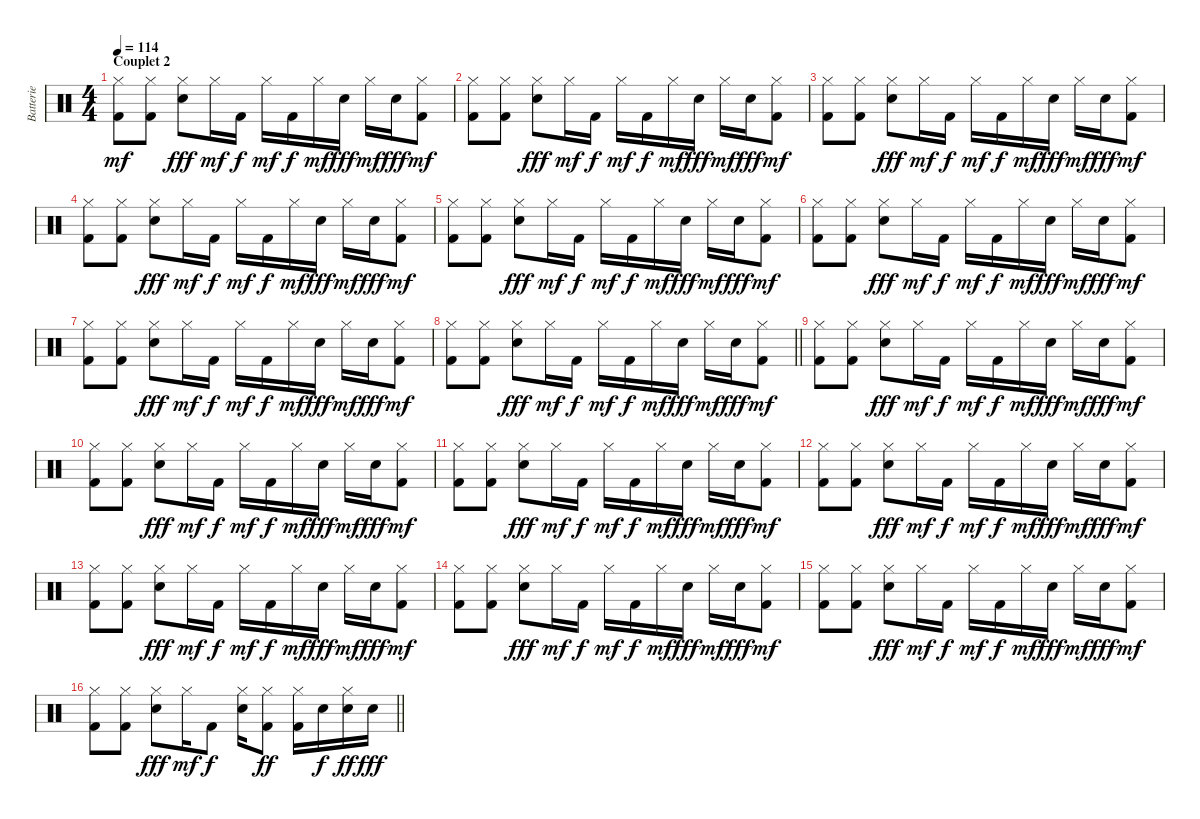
\track ("Batterie" "Batterie") {instrument percussion}
\staff {score}
\articulation defaults
\ts (4 4)
\section ("" "Couplet 2")
\tempo 114
\clef neutral
\ks c
("Hi-Hat (closed)" "Kick (hit) 2").8{dy mf} ("Hi-Hat (closed)" "Kick (hit) 2").8 ("Hi-Hat (closed)" "Snare (hit) 2").8{dy fff} "Hi-Hat (closed)".16{dy mf} "Kick (hit) 2".16{dy f} "Hi-Hat (closed)".16{dy mf} "Kick (hit) 2".16{dy f} "Hi-Hat (closed)".16{dy mf} "Snare (hit) 2".16{dy fff} "Hi-Hat (closed)".16{dy mf} "Snare (hit) 2".16{dy fff} ("Hi-Hat (closed)" "Kick (hit) 2").8{dy mf} |
("Hi-Hat (closed)" "Kick (hit) 2").8 ("Hi-Hat (closed)" "Kick (hit) 2").8 ("Hi-Hat (closed)" "Snare (hit) 2").8{dy fff} "Hi-Hat (closed)".16{dy mf} "Kick (hit) 2".16{dy f} "Hi-Hat (closed)".16{dy mf} "Kick (hit) 2".16{dy f} "Hi-Hat (closed)".16{dy mf} "Snare (hit) 2".16{dy fff} "Hi-Hat (closed)".16{dy mf} "Snare (hit) 2".16{dy fff} ("Hi-Hat (closed)" "Kick (hit) 2").8{dy mf} |
("Hi-Hat (closed)" "Kick (hit) 2").8 ("Hi-Hat (closed)" "Kick (hit) 2").8 ("Hi-Hat (closed)" "Snare (hit) 2").8{dy fff} "Hi-Hat (closed)".16{dy mf} "Kick (hit) 2".16{dy f} "Hi-Hat (closed)".16{dy mf} "Kick (hit) 2".16{dy f} "Hi-Hat (closed)".16{dy mf} "Snare (hit) 2".16{dy fff} "Hi-Hat (closed)".16{dy mf} "Snare (hit) 2".16{dy fff} ("Hi-Hat (closed)" "Kick (hit) 2").8{dy mf} |
("Hi-Hat (closed)" "Kick (hit) 2").8 ("Hi-Hat (closed)" "Kick (hit) 2").8 ("Hi-Hat (closed)" "Snare (hit) 2").8{dy fff} "Hi-Hat (closed)".16{dy mf} "Kick (hit) 2".16{dy f} "Hi-Hat (closed)".16{dy mf} "Kick (hit) 2".16{dy f} "Hi-Hat (closed)".16{dy mf} "Snare (hit) 2".16{dy fff} "Hi-Hat (closed)".16{dy mf} "Snare (hit) 2".16{dy fff} ("Hi-Hat (closed)" "Kick (hit) 2").8{dy mf} |
("Hi-Hat (closed)" "Kick (hit) 2").8 ("Hi-Hat (closed)" "Kick (hit) 2").8 ("Hi-Hat (closed)" "Snare (hit) 2").8{dy fff} "Hi-Hat (closed)".16{dy mf} "Kick (hit) 2".16{dy f} "Hi-Hat (closed)".16{dy mf} "Kick (hit) 2".16{dy f} "Hi-Hat (closed)".16{dy mf} "Snare (hit) 2".16{dy fff} "Hi-Hat (closed)".16{dy mf} "Snare (hit) 2".16{dy fff} ("Hi-Hat (closed)" "Kick (hit) 2").8{dy mf} |
("Hi-Hat (closed)" "Kick (hit) 2").8 ("Hi-Hat (closed)" "Kick (hit) 2").8 ("Hi-Hat (closed)" "Snare (hit) 2").8{dy fff} "Hi-Hat (closed)".16{dy mf} "Kick (hit) 2".16{dy f} "Hi-Hat (closed)".16{dy mf} "Kick (hit) 2".16{dy f} "Hi-Hat (closed)".16{dy mf} "Snare (hit) 2".16{dy fff} "Hi-Hat (closed)".16{dy mf} "Snare (hit) 2".16{dy fff} ("Hi-Hat (closed)" "Kick (hit) 2").8{dy mf} |
("Hi-Hat (closed)" "Kick (hit) 2").8 ("Hi-Hat (closed)" "Kick (hit) 2").8 ("Hi-Hat (closed)" "Snare (hit) 2").8{dy fff} "Hi-Hat (closed)".16{dy mf} "Kick (hit) 2".16{dy f} "Hi-Hat (closed)".16{dy mf} "Kick (hit) 2".16{dy f} "Hi-Hat (closed)".16{dy mf} "Snare (hit) 2".16{dy fff} "Hi-Hat (closed)".16{dy mf} "Snare (hit) 2".16{dy fff} ("Hi-Hat (closed)" "Kick (hit) 2").8{dy mf} |
\barLineRight lightlight
("Hi-Hat (closed)" "Kick (hit) 2").8 ("Hi-Hat (closed)" "Kick (hit) 2").8 ("Hi-Hat (closed)" "Snare (hit) 2").8{dy fff} "Hi-Hat (closed)".16{dy mf} "Kick (hit) 2".16{dy f} "Hi-Hat (closed)".16{dy mf} "Kick (hit) 2".16{dy f} "Hi-Hat (closed)".16{dy mf} "Snare (hit) 2".16{dy fff} "Hi-Hat (closed)".16{dy mf} "Snare (hit) 2".16{dy fff} ("Hi-Hat (closed)" "Kick (hit) 2").8{dy mf} |
("Hi-Hat (closed)" "Kick (hit) 2").8 ("Hi-Hat (closed)" "Kick (hit) 2").8 ("Hi-Hat (closed)" "Snare (hit) 2").8{dy fff} "Hi-Hat (closed)".16{dy mf} "Kick (hit) 2".16{dy f} "Hi-Hat (closed)".16{dy mf} "Kick (hit) 2".16{dy f} "Hi-Hat (closed)".16{dy mf} "Snare (hit) 2".16{dy fff} "Hi-Hat (closed)".16{dy mf} "Snare (hit) 2".16{dy fff} ("Hi-Hat (closed)" "Kick (hit) 2").8{dy mf} |
("Hi-Hat (closed)" "Kick (hit) 2").8 ("Hi-Hat (closed)" "Kick (hit) 2").8 ("Hi-Hat (closed)" "Snare (hit) 2").8{dy fff} "Hi-Hat (closed)".16{dy mf} "Kick (hit) 2".16{dy f} "Hi-Hat (closed)".16{dy mf} "Kick (hit) 2".16{dy f} "Hi-Hat (closed)".16{dy mf} "Snare (hit) 2".16{dy fff} "Hi-Hat (closed)".16{dy mf} "Snare (hit) 2".16{dy fff} ("Hi-Hat (closed)" "Kick (hit) 2").8{dy mf} |
("Hi-Hat (closed)" "Kick (hit) 2").8 ("Hi-Hat (closed)" "Kick (hit) 2").8 ("Hi-Hat (closed)" "Snare (hit) 2").8{dy fff} "Hi-Hat (closed)".16{dy mf} "Kick (hit) 2".16{dy f} "Hi-Hat (closed)".16{dy mf} "Kick (hit) 2".16{dy f} "Hi-Hat (closed)".16{dy mf} "Snare (hit) 2".16{dy fff} "Hi-Hat (closed)".16{dy mf} "Snare (hit) 2".16{dy fff} ("Hi-Hat (closed)" "Kick (hit) 2").8{dy mf} |
("Hi-Hat (closed)" "Kick (hit) 2").8 ("Hi-Hat (closed)" "Kick (hit) 2").8 ("Hi-Hat (closed)" "Snare (hit) 2").8{dy fff} "Hi-Hat (closed)".16{dy mf} "Kick (hit) 2".16{dy f} "Hi-Hat (closed)".16{dy mf} "Kick (hit) 2".16{dy f} "Hi-Hat (closed)".16{dy mf} "Snare (hit) 2".16{dy fff} "Hi-Hat (closed)".16{dy mf} "Snare (hit) 2".16{dy fff} ("Hi-Hat (closed)" "Kick (hit) 2").8{dy mf} |
("Hi-Hat (closed)" "Kick (hit) 2").8 ("Hi-Hat (closed)" "Kick (hit) 2").8 ("Hi-Hat (closed)" "Snare (hit) 2").8{dy fff} "Hi-Hat (closed)".16{dy mf} "Kick (hit) 2".16{dy f} "Hi-Hat (closed)".16{dy mf} "Kick (hit) 2".16{dy f} "Hi-Hat (closed)".16{dy mf} "Snare (hit) 2".16{dy fff} "Hi-Hat (closed)".16{dy mf} "Snare (hit) 2".16{dy fff} ("Hi-Hat (closed)" "Kick (hit) 2").8{dy mf} |
("Hi-Hat (closed)" "Kick (hit) 2").8 ("Hi-Hat (closed)" "Kick (hit) 2").8 ("Hi-Hat (closed)" "Snare (hit) 2").8{dy fff} "Hi-Hat (closed)".16{dy mf} "Kick (hit) 2".16{dy f} "Hi-Hat (closed)".16{dy mf} "Kick (hit) 2".16{dy f} "Hi-Hat (closed)".16{dy mf} "Snare (hit) 2".16{dy fff} "Hi-Hat (closed)".16{dy mf} "Snare (hit) 2".16{dy fff} ("Hi-Hat (closed)" "Kick (hit) 2").8{dy mf} |
("Hi-Hat (closed)" "Kick (hit) 2").8 ("Hi-Hat (closed)" "Kick (hit) 2").8 ("Hi-Hat (closed)" "Snare (hit) 2").8{dy fff} "Hi-Hat (closed)".16{dy mf} "Kick (hit) 2".16{dy f} "Hi-Hat (closed)".16{dy mf} "Kick (hit) 2".16{dy f} "Hi-Hat (closed)".16{dy mf} "Snare (hit) 2".16{dy fff} "Hi-Hat (closed)".16{dy mf} "Snare (hit) 2".16{dy fff} ("Hi-Hat (closed)" "Kick (hit) 2").8{dy mf} |
\barLineRight lightlight
("Hi-Hat (closed)" "Kick (hit) 2").8 ("Hi-Hat (closed)" "Kick (hit) 2").8 ("Hi-Hat (closed)" "Snare (hit) 2").8{dy fff} "Hi-Hat (closed)".16{dy mf} "Kick (hit) 2".8{dy f} ("Hi-Hat (closed)" "Snare (hit) 2").16 ("Hi-Hat (closed)" "Kick (hit) 2").8{dy ff} ("Hi-Hat (closed)" "Kick (hit) 2").16 "Snare (hit) 2".16{dy f} ("Hi-Hat (closed)" "Snare (hit) 2").16{dy ff} "Snare (hit) 2".16{dy fff}
